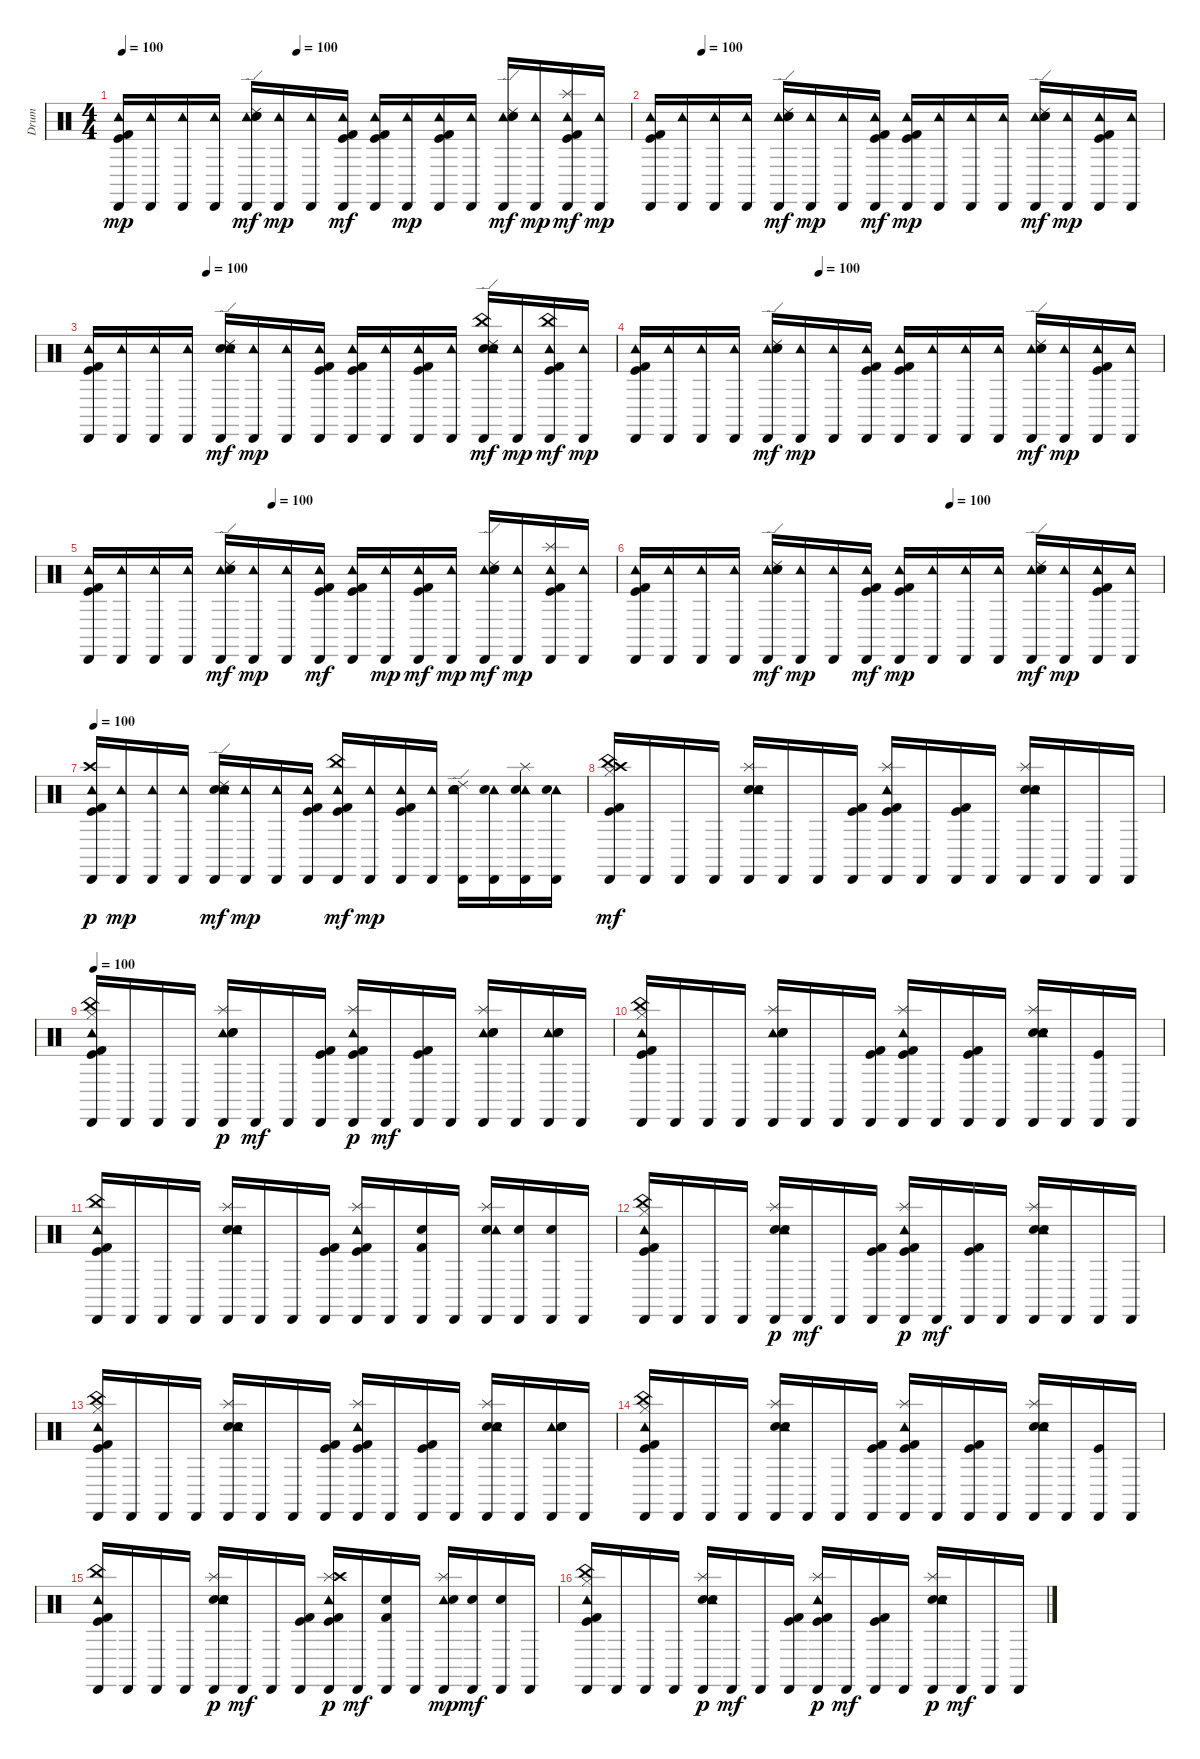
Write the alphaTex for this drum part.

\track ("Drum" "Drum") {instrument percussion}
\staff {score}
\articulation defaults
\ts (4 4)
\tempo 100
\tempo (100 0.34375)
\clef neutral
\ks c
("Tambourine (hit)" "Kick (hit)" "Cabasa (hit)" "Kick (hit) 2").16{dy mp} ("Tambourine (hit)" "Cabasa (hit)").16 ("Tambourine (hit)" "Cabasa (hit)").16 ("Tambourine (hit)" "Cabasa (hit)").16 ("Tambourine (hit)" "Snare (hit) 2" "Cabasa (hit)" "Ride (edge) 2" "Electric Snare (hit)").16{dy mf} ("Tambourine (hit)" "Cabasa (hit)").16{dy mp} ("Tambourine (hit)" "Cabasa (hit)").16 ("Tambourine (hit)" "Kick (hit)" "Cabasa (hit)" "Kick (hit) 2").16{dy mf} ("Tambourine (hit)" "Kick (hit)" "Cabasa (hit)" "Kick (hit) 2").16 ("Tambourine (hit)" "Cabasa (hit)").16{dy mp} ("Tambourine (hit)" "Kick (hit)" "Cabasa (hit)" "Kick (hit) 2").16 ("Tambourine (hit)" "Cabasa (hit)").16 ("Tambourine (hit)" "Snare (hit) 2" "Cabasa (hit)" "Ride (edge) 2" "Electric Snare (hit)").16{dy mf} ("Tambourine (hit)" "Cabasa (hit)").16{dy mp} ("Tambourine (hit)" "Kick (hit)" "Splash (hit)" "Cabasa (hit)" "Kick (hit) 2").16{dy mf} ("Tambourine (hit)" "Cabasa (hit)").16{dy mp} |
\tempo (100 0.09375)
("Cabasa (hit)" "Kick (hit)" "Tambourine (hit)" "Kick (hit) 2").16 ("Cabasa (hit)" "Tambourine (hit)").16 ("Cabasa (hit)" "Tambourine (hit)").16 ("Cabasa (hit)" "Tambourine (hit)").16 ("Tambourine (hit)" "Snare (hit) 2" "Ride (edge) 2" "Cabasa (hit)" "Electric Snare (hit)").16{dy mf} ("Cabasa (hit)" "Tambourine (hit)").16{dy mp} ("Cabasa (hit)" "Tambourine (hit)").16 ("Kick (hit) 2" "Tambourine (hit)" "Cabasa (hit)" "Kick (hit)").16{dy mf} ("Cabasa (hit)" "Kick (hit)" "Tambourine (hit)" "Kick (hit) 2").16{dy mp} ("Tambourine (hit)" "Cabasa (hit)").16 ("Cabasa (hit)" "Tambourine (hit)").16 ("Tambourine (hit)" "Cabasa (hit)").16 ("Cabasa (hit)" "Ride (edge) 2" "Tambourine (hit)" "Electric Snare (hit)" "Snare (hit) 2").16{dy mf} ("Tambourine (hit)" "Cabasa (hit)").16{dy mp} ("Cabasa (hit)" "Kick (hit)" "Tambourine (hit)" "Kick (hit) 2").16 ("Tambourine (hit)" "Cabasa (hit)").16 |
\tempo (100 0.21875)
("Cabasa (hit)" "Kick (hit)" "Tambourine (hit)" "Kick (hit) 2").16 ("Cabasa (hit)" "Tambourine (hit)").16 ("Cabasa (hit)" "Tambourine (hit)").16 ("Cabasa (hit)" "Tambourine (hit)").16 ("Cabasa (hit)" "Snare (hit) 2" "Tambourine (hit)" "Ride (edge) 2" "Electric Snare (hit)").16{dy mf} ("Cabasa (hit)" "Tambourine (hit)").16{dy mp} ("Cabasa (hit)" "Tambourine (hit)").16 ("Cabasa (hit)" "Kick (hit)" "Tambourine (hit)" "Kick (hit) 2").16 ("Cabasa (hit)" "Kick (hit)" "Tambourine (hit)" "Kick (hit) 2").16 ("Cabasa (hit)" "Tambourine (hit)").16 ("Cabasa (hit)" "Kick (hit)" "Tambourine (hit)" "Kick (hit) 2").16 ("Cabasa (hit)" "Tambourine (hit)").16 ("Cabasa (hit)" "Snare (hit) 2" "Tambourine (hit)" "Ride (edge) 2" "China (hit)" "Electric Snare (hit)").16{dy mf} ("Cabasa (hit)" "Tambourine (hit)").16{dy mp} ("Cabasa (hit)" "Kick (hit)" "Tambourine (hit)" "China (hit)" "Kick (hit) 2").16{dy mf} ("Cabasa (hit)" "Tambourine (hit)").16{dy mp} |
\tempo (100 0.34375)
("Tambourine (hit)" "Kick (hit)" "Cabasa (hit)" "Kick (hit) 2").16 ("Tambourine (hit)" "Cabasa (hit)").16 ("Tambourine (hit)" "Cabasa (hit)").16 ("Tambourine (hit)" "Cabasa (hit)").16 ("Tambourine (hit)" "Snare (hit) 2" "Cabasa (hit)" "Ride (edge) 2" "Electric Snare (hit)").16{dy mf} ("Tambourine (hit)" "Cabasa (hit)").16{dy mp} ("Tambourine (hit)" "Cabasa (hit)").16 ("Tambourine (hit)" "Kick (hit)" "Cabasa (hit)" "Kick (hit) 2").16 ("Tambourine (hit)" "Kick (hit)" "Cabasa (hit)" "Kick (hit) 2").16 ("Tambourine (hit)" "Cabasa (hit)").16 ("Tambourine (hit)" "Cabasa (hit)").16 ("Tambourine (hit)" "Cabasa (hit)").16 ("Tambourine (hit)" "Snare (hit) 2" "Cabasa (hit)" "Ride (edge) 2" "Electric Snare (hit)").16{dy mf} ("Tambourine (hit)" "Cabasa (hit)").16{dy mp} ("Tambourine (hit)" "Kick (hit)" "Cabasa (hit)" "Kick (hit) 2").16 ("Tambourine (hit)" "Cabasa (hit)").16 |
\tempo (100 0.34375)
("Tambourine (hit)" "Kick (hit) 2" "Kick (hit)" "Cabasa (hit)").16 ("Tambourine (hit)" "Cabasa (hit)").16 ("Tambourine (hit)" "Cabasa (hit)").16 ("Tambourine (hit)" "Cabasa (hit)").16 ("Tambourine (hit)" "Ride (edge) 2" "Cabasa (hit)" "Electric Snare (hit)" "Snare (hit) 2").16{dy mf} ("Cabasa (hit)" "Tambourine (hit)").16{dy mp} ("Tambourine (hit)" "Cabasa (hit)").16 ("Kick (hit) 2" "Cabasa (hit)" "Tambourine (hit)" "Kick (hit)").16{dy mf} ("Tambourine (hit)" "Cabasa (hit)" "Kick (hit) 2" "Kick (hit)").16 ("Cabasa (hit)" "Tambourine (hit)").16{dy mp} ("Tambourine (hit)" "Cabasa (hit)" "Kick (hit) 2" "Kick (hit)").16{dy mf} ("Cabasa (hit)" "Tambourine (hit)").16{dy mp} ("Tambourine (hit)" "Ride (edge) 2" "Cabasa (hit)" "Electric Snare (hit)" "Snare (hit) 2").16{dy mf} ("Cabasa (hit)" "Tambourine (hit)").16{dy mp} ("Tambourine (hit)" "Splash (hit)" "Cabasa (hit)" "Kick (hit)" "Kick (hit) 2").16 ("Tambourine (hit)" "Cabasa (hit)").16 |
\tempo (100 0.59375)
("Cabasa (hit)" "Kick (hit)" "Tambourine (hit)" "Kick (hit) 2").16 ("Cabasa (hit)" "Tambourine (hit)").16 ("Cabasa (hit)" "Tambourine (hit)").16 ("Cabasa (hit)" "Tambourine (hit)").16 ("Cabasa (hit)" "Ride (edge) 2" "Tambourine (hit)" "Electric Snare (hit)" "Snare (hit) 2").16{dy mf} ("Cabasa (hit)" "Tambourine (hit)").16{dy mp} ("Cabasa (hit)" "Tambourine (hit)").16 ("Kick (hit) 2" "Tambourine (hit)" "Cabasa (hit)" "Kick (hit)").16{dy mf} ("Cabasa (hit)" "Kick (hit)" "Tambourine (hit)" "Kick (hit) 2").16{dy mp} ("Tambourine (hit)" "Cabasa (hit)").16 ("Cabasa (hit)" "Tambourine (hit)").16 ("Tambourine (hit)" "Cabasa (hit)").16 ("Cabasa (hit)" "Ride (edge) 2" "Tambourine (hit)" "Electric Snare (hit)" "Snare (hit) 2").16{dy mf} ("Tambourine (hit)" "Cabasa (hit)").16{dy mp} ("Cabasa (hit)" "Kick (hit)" "Tambourine (hit)" "Kick (hit) 2").16 ("Tambourine (hit)" "Cabasa (hit)").16 |
\tempo 100
("Cabasa (hit)" "Kick (hit)" "Tambourine (hit)" "Crash high (hit)" "Kick (hit) 2").16{dy p} ("Cabasa (hit)" "Tambourine (hit)").16{dy mp} ("Cabasa (hit)" "Tambourine (hit)").16 ("Cabasa (hit)" "Tambourine (hit)").16 ("Cabasa (hit)" "Snare (hit) 2" "Tambourine (hit)" "Ride (edge) 2" "Electric Snare (hit)").16{dy mf} ("Cabasa (hit)" "Tambourine (hit)").16{dy mp} ("Cabasa (hit)" "Tambourine (hit)").16 ("Cabasa (hit)" "Kick (hit)" "Tambourine (hit)" "Kick (hit) 2").16 ("Cabasa (hit)" "Kick (hit)" "Tambourine (hit)" "China (hit)" "Kick (hit) 2").16{dy mf} ("Cabasa (hit)" "Tambourine (hit)").16{dy mp} ("Cabasa (hit)" "Kick (hit)" "Tambourine (hit)" "Kick (hit) 2").16 ("Cabasa (hit)" "Tambourine (hit)").16 ("Cabasa (hit)" "Snare (hit) 2" "Tambourine (hit)" "Ride (edge) 2" "Snare (hit) 2").16 ("Cabasa (hit)" "Tambourine (hit)" "Snare (hit) 2").16 ("Cabasa (hit)" "Tambourine (hit)" "Snare (hit) 2" "Splash (hit)").16 ("Cabasa (hit)" "Tambourine (hit)" "Snare (hit) 2").16 |
("Crash high (hit)" "Kick (hit) 2" "Hi-Hat (closed)" "China (hit)" "Kick (hit)" "Cabasa (hit)").16{dy mf} "Cabasa (hit)".16 "Cabasa (hit)".16 "Cabasa (hit)".16 ("Splash (hit)" "Snare (hit) 2" "Cabasa (hit)" "Tambourine (hit)" "Electric Snare (hit)").16 "Cabasa (hit)".16 "Cabasa (hit)".16 ("Kick (hit) 2" "Kick (hit)" "Cabasa (hit)").16 ("Kick (hit) 2" "Splash (hit)" "Kick (hit)" "Cabasa (hit)" "Tambourine (hit)").16 "Cabasa (hit)".16 ("Kick (hit) 2" "Kick (hit)" "Cabasa (hit)").16 "Cabasa (hit)".16 ("Snare (hit) 2" "Splash (hit)" "Cabasa (hit)" "Tambourine (hit)" "Electric Snare (hit)").16 "Cabasa (hit)".16 "Cabasa (hit)".16 "Cabasa (hit)".16 |
\tempo 100
("Tambourine (hit)" "Cabasa (hit)" "Kick (hit)" "China (hit)" "Hi-Hat (closed)" "Kick (hit) 2").16 "Cabasa (hit)".16 "Cabasa (hit)".16 "Cabasa (hit)".16 ("Tambourine (hit)" "Cabasa (hit)" "Snare (hit) 2" "Splash (hit)" "Electric Snare (hit)").16{dy p} "Cabasa (hit)".16{dy mf} "Cabasa (hit)".16 ("Cabasa (hit)" "Kick (hit)" "Kick (hit) 2").16 ("Tambourine (hit)" "Cabasa (hit)" "Kick (hit)" "Splash (hit)" "Kick (hit) 2").16{dy p} "Cabasa (hit)".16{dy mf} ("Cabasa (hit)" "Kick (hit)" "Kick (hit) 2").16 "Cabasa (hit)".16 ("Tambourine (hit)" "Cabasa (hit)" "Splash (hit)" "Snare (hit) 2" "Electric Snare (hit)").16 "Cabasa (hit)".16 ("Tambourine (hit)" "Cabasa (hit)" "Snare (hit) 2" "Electric Snare (hit)").16 "Cabasa (hit)".16 |
("Hi-Hat (closed)" "China (hit)" "Kick (hit) 2" "Cabasa (hit)" "Kick (hit)" "Tambourine (hit)").16 "Cabasa (hit)".16 "Cabasa (hit)".16 "Cabasa (hit)".16 ("Tambourine (hit)" "Electric Snare (hit)" "Splash (hit)" "Cabasa (hit)" "Snare (hit) 2").16 "Cabasa (hit)".16 "Cabasa (hit)".16 ("Cabasa (hit)" "Kick (hit)" "Kick (hit) 2").16 ("Tambourine (hit)" "Cabasa (hit)" "Kick (hit) 2" "Splash (hit)" "Kick (hit)").16 "Cabasa (hit)".16 ("Cabasa (hit)" "Kick (hit)" "Kick (hit) 2").16 "Cabasa (hit)".16 ("Electric Snare (hit)" "Tambourine (hit)" "Splash (hit)" "Cabasa (hit)" "Snare (hit) 2").16 "Cabasa (hit)".16 ("Kick (hit)" "Cabasa (hit)").16 "Cabasa (hit)".16 |
("China (hit)" "Kick (hit)" "Cabasa (hit)" "Kick (hit) 2" "Tambourine (hit)").16 "Cabasa (hit)".16 "Cabasa (hit)".16 "Cabasa (hit)".16 ("Splash (hit)" "Snare (hit) 2" "Cabasa (hit)" "Tambourine (hit)" "Electric Snare (hit)").16 "Cabasa (hit)".16 "Cabasa (hit)".16 ("Kick (hit)" "Cabasa (hit)" "Kick (hit) 2").16 ("Splash (hit)" "Kick (hit)" "Cabasa (hit)" "Kick (hit) 2" "Tambourine (hit)").16 "Cabasa (hit)".16 ("Cabasa (hit)" "Snare (hit) 2" "Kick (hit) 2").16 "Cabasa (hit)".16 ("Snare (hit) 2" "Splash (hit)" "Cabasa (hit)" "Tambourine (hit)").16 ("Cabasa (hit)" "Snare (hit) 2").16 ("Snare (hit) 2" "Cabasa (hit)").16 "Cabasa (hit)".16 |
("Tambourine (hit)" "Cabasa (hit)" "Kick (hit)" "China (hit)" "Hi-Hat (closed)" "Kick (hit) 2").16 "Cabasa (hit)".16 "Cabasa (hit)".16 "Cabasa (hit)".16 ("Electric Snare (hit)" "Tambourine (hit)" "Cabasa (hit)" "Snare (hit) 2" "Splash (hit)").16{dy p} "Cabasa (hit)".16{dy mf} "Cabasa (hit)".16 ("Cabasa (hit)" "Kick (hit)" "Kick (hit) 2").16 ("Tambourine (hit)" "Cabasa (hit)" "Kick (hit)" "Splash (hit)" "Kick (hit) 2").16{dy p} "Cabasa (hit)".16{dy mf} ("Cabasa (hit)" "Kick (hit)" "Kick (hit) 2").16 "Cabasa (hit)".16 ("Electric Snare (hit)" "Tambourine (hit)" "Cabasa (hit)" "Splash (hit)" "Snare (hit) 2").16 "Cabasa (hit)".16 "Cabasa (hit)".16 "Cabasa (hit)".16 |
("Kick (hit) 2" "Hi-Hat (closed)" "China (hit)" "Kick (hit)" "Cabasa (hit)" "Tambourine (hit)").16 "Cabasa (hit)".16 "Cabasa (hit)".16 "Cabasa (hit)".16 ("Electric Snare (hit)" "Splash (hit)" "Snare (hit) 2" "Cabasa (hit)" "Tambourine (hit)").16 "Cabasa (hit)".16 "Cabasa (hit)".16 ("Kick (hit) 2" "Kick (hit)" "Cabasa (hit)").16 ("Kick (hit) 2" "Splash (hit)" "Kick (hit)" "Cabasa (hit)" "Tambourine (hit)").16 "Cabasa (hit)".16 ("Kick (hit) 2" "Kick (hit)" "Cabasa (hit)").16 "Cabasa (hit)".16 ("Electric Snare (hit)" "Snare (hit) 2" "Splash (hit)" "Cabasa (hit)" "Tambourine (hit)").16 "Cabasa (hit)".16 ("Tambourine (hit)" "Electric Snare (hit)" "Snare (hit) 2" "Cabasa (hit)").16 "Cabasa (hit)".16 |
("Kick (hit) 2" "Hi-Hat (closed)" "China (hit)" "Kick (hit)" "Cabasa (hit)" "Tambourine (hit)").16 "Cabasa (hit)".16 "Cabasa (hit)".16 "Cabasa (hit)".16 ("Electric Snare (hit)" "Splash (hit)" "Snare (hit) 2" "Cabasa (hit)" "Tambourine (hit)").16 "Cabasa (hit)".16 "Cabasa (hit)".16 ("Kick (hit) 2" "Kick (hit)" "Cabasa (hit)").16 ("Kick (hit) 2" "Splash (hit)" "Kick (hit)" "Cabasa (hit)" "Tambourine (hit)").16 "Cabasa (hit)".16 ("Kick (hit) 2" "Kick (hit)" "Cabasa (hit)").16 "Cabasa (hit)".16 ("Electric Snare (hit)" "Snare (hit) 2" "Splash (hit)" "Cabasa (hit)" "Tambourine (hit)").16 "Cabasa (hit)".16 ("Kick (hit)" "Cabasa (hit)").16 "Cabasa (hit)".16 |
("Tambourine (hit)" "Kick (hit) 2" "Cabasa (hit)" "Kick (hit)" "China (hit)").16 "Cabasa (hit)".16 "Cabasa (hit)".16 "Cabasa (hit)".16 ("Electric Snare (hit)" "Tambourine (hit)" "Cabasa (hit)" "Snare (hit) 2" "Splash (hit)").16{dy p} "Cabasa (hit)".16{dy mf} "Cabasa (hit)".16 ("Kick (hit) 2" "Cabasa (hit)" "Kick (hit)").16 ("Tambourine (hit)" "Kick (hit) 2" "Cabasa (hit)" "Kick (hit)" "Splash (hit)" "Crash high (hit)").16{dy p} "Cabasa (hit)".16{dy mf} ("Kick (hit) 2" "Snare (hit) 2" "Cabasa (hit)").16 "Cabasa (hit)".16 ("Tambourine (hit)" "Cabasa (hit)" "Splash (hit)" "Snare (hit) 2").16{dy mp} ("Snare (hit) 2" "Cabasa (hit)").16{dy mf} ("Cabasa (hit)" "Snare (hit) 2").16 "Cabasa (hit)".16 |
("China (hit)" "Cabasa (hit)" "Tambourine (hit)" "Hi-Hat (closed)" "Kick (hit)" "Kick (hit) 2").16 "Cabasa (hit)".16 "Cabasa (hit)".16 "Cabasa (hit)".16 ("Electric Snare (hit)" "Snare (hit) 2" "Cabasa (hit)" "Tambourine (hit)" "Splash (hit)").16{dy p} "Cabasa (hit)".16{dy mf} "Cabasa (hit)".16 ("Cabasa (hit)" "Kick (hit) 2" "Kick (hit)").16 ("Cabasa (hit)" "Tambourine (hit)" "Splash (hit)" "Kick (hit)" "Kick (hit) 2").16{dy p} "Cabasa (hit)".16{dy mf} ("Kick (hit)" "Cabasa (hit)" "Kick (hit) 2").16 "Cabasa (hit)".16 ("Snare (hit) 2" "Tambourine (hit)" "Cabasa (hit)" "Electric Snare (hit)" "Splash (hit)").16{dy p} "Cabasa (hit)".16{dy mf} "Cabasa (hit)".16 "Cabasa (hit)".16
